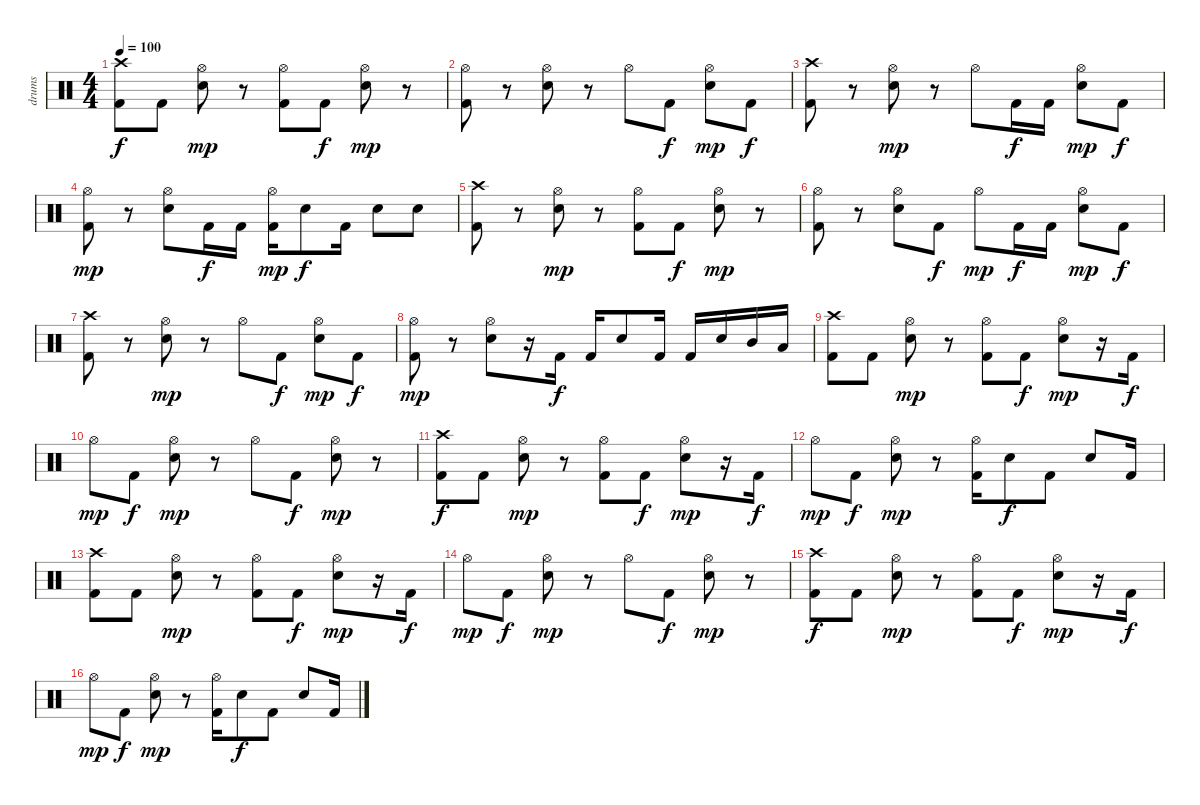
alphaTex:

\track ("drums" "drums") {instrument percussion}
\staff {score}
\articulation defaults
\ts (4 4)
\tempo 100
\clef neutral
\ks c
("Crash high (hit)" "Kick (hit) 2").8{dy f} "Kick (hit) 2".8 ("Electric Snare (hit)" "Hi-Hat (open)").8{dy mp} r.8 ("Hi-Hat (open)" "Kick (hit) 2").8 "Kick (hit) 2".8{dy f} ("Electric Snare (hit)" "Hi-Hat (open)").8{dy mp} r.8 |
("Hi-Hat (open)" "Kick (hit) 2").8 r.8 ("Electric Snare (hit)" "Hi-Hat (open)").8 r.8 "Hi-Hat (open)".8 "Kick (hit) 2".8{dy f} ("Electric Snare (hit)" "Hi-Hat (open)").8{dy mp} "Kick (hit) 2".8{dy f} |
("Crash high (hit)" "Kick (hit) 2").8 r.8 ("Electric Snare (hit)" "Hi-Hat (open)").8{dy mp} r.8 "Hi-Hat (open)".8 "Kick (hit) 2".16{dy f} "Kick (hit) 2".16 ("Electric Snare (hit)" "Hi-Hat (open)").8{dy mp} "Kick (hit) 2".8{dy f} |
("Hi-Hat (open)" "Kick (hit) 2").8{dy mp} r.8 ("Electric Snare (hit)" "Hi-Hat (open)").8 "Kick (hit) 2".16{dy f} "Kick (hit) 2".16 ("Hi-Hat (open)" "Kick (hit) 2").16{dy mp} "Electric Snare (hit)".8{dy f} "Kick (hit) 2".16 "Electric Snare (hit)".8 "Electric Snare (hit)".8 |
("Crash high (hit)" "Kick (hit) 2").8 r.8 ("Electric Snare (hit)" "Hi-Hat (open)").8{dy mp} r.8 ("Hi-Hat (open)" "Kick (hit) 2").8 "Kick (hit) 2".8{dy f} ("Electric Snare (hit)" "Hi-Hat (open)").8{dy mp} r.8 |
("Hi-Hat (open)" "Kick (hit) 2").8 r.8 ("Electric Snare (hit)" "Hi-Hat (open)").8 "Kick (hit) 2".8{dy f} "Hi-Hat (open)".8{dy mp} "Kick (hit) 2".16{dy f} "Kick (hit) 2".16 ("Electric Snare (hit)" "Hi-Hat (open)").8{dy mp} "Kick (hit) 2".8{dy f} |
("Crash high (hit)" "Kick (hit) 2").8 r.8 ("Electric Snare (hit)" "Hi-Hat (open)").8{dy mp} r.8 "Hi-Hat (open)".8 "Kick (hit) 2".8{dy f} ("Electric Snare (hit)" "Hi-Hat (open)").8{dy mp} "Kick (hit) 2".8{dy f} |
("Hi-Hat (open)" "Kick (hit) 2").8{dy mp} r.8 ("Electric Snare (hit)" "Hi-Hat (open)").8 r.16 "Kick (hit) 2".16{dy f} "Kick (hit) 2".16 "Electric Snare (hit)".8 "Kick (hit) 2".16 "Kick (hit) 2".16 "Electric Snare (hit)".16 "Mid Tom (hit)".16 "Low Tom (hit)".16 |
("Crash high (hit)" "Kick (hit) 2").8 "Kick (hit) 2".8 ("Electric Snare (hit)" "Hi-Hat (open)").8{dy mp} r.8 ("Hi-Hat (open)" "Kick (hit) 2").8 "Kick (hit) 2".8{dy f} ("Electric Snare (hit)" "Hi-Hat (open)").8{dy mp} r.16 "Kick (hit) 2".16{dy f} |
"Hi-Hat (open)".8{dy mp} "Kick (hit) 2".8{dy f} ("Electric Snare (hit)" "Hi-Hat (open)").8{dy mp} r.8 "Hi-Hat (open)".8 "Kick (hit) 2".8{dy f} ("Electric Snare (hit)" "Hi-Hat (open)").8{dy mp} r.8 |
("Crash high (hit)" "Kick (hit) 2").8{dy f} "Kick (hit) 2".8 ("Electric Snare (hit)" "Hi-Hat (open)").8{dy mp} r.8 ("Hi-Hat (open)" "Kick (hit) 2").8 "Kick (hit) 2".8{dy f} ("Electric Snare (hit)" "Hi-Hat (open)").8{dy mp} r.16 "Kick (hit) 2".16{dy f} |
"Hi-Hat (open)".8{dy mp} "Kick (hit) 2".8{dy f} ("Electric Snare (hit)" "Hi-Hat (open)").8{dy mp} r.8 ("Hi-Hat (open)" "Kick (hit) 2").16 "Electric Snare (hit)".8{dy f} "Kick (hit) 2".8 "Electric Snare (hit)".8 "Kick (hit) 2".16 |
("Crash high (hit)" "Kick (hit) 2").8 "Kick (hit) 2".8 ("Electric Snare (hit)" "Hi-Hat (open)").8{dy mp} r.8 ("Hi-Hat (open)" "Kick (hit) 2").8 "Kick (hit) 2".8{dy f} ("Electric Snare (hit)" "Hi-Hat (open)").8{dy mp} r.16 "Kick (hit) 2".16{dy f} |
"Hi-Hat (open)".8{dy mp} "Kick (hit) 2".8{dy f} ("Electric Snare (hit)" "Hi-Hat (open)").8{dy mp} r.8 "Hi-Hat (open)".8 "Kick (hit) 2".8{dy f} ("Electric Snare (hit)" "Hi-Hat (open)").8{dy mp} r.8 |
("Crash high (hit)" "Kick (hit) 2").8{dy f} "Kick (hit) 2".8 ("Electric Snare (hit)" "Hi-Hat (open)").8{dy mp} r.8 ("Hi-Hat (open)" "Kick (hit) 2").8 "Kick (hit) 2".8{dy f} ("Electric Snare (hit)" "Hi-Hat (open)").8{dy mp} r.16 "Kick (hit) 2".16{dy f} |
"Hi-Hat (open)".8{dy mp} "Kick (hit) 2".8{dy f} ("Electric Snare (hit)" "Hi-Hat (open)").8{dy mp} r.8 ("Hi-Hat (open)" "Kick (hit) 2").16 "Electric Snare (hit)".8{dy f} "Kick (hit) 2".8 "Electric Snare (hit)".8 "Kick (hit) 2".16
